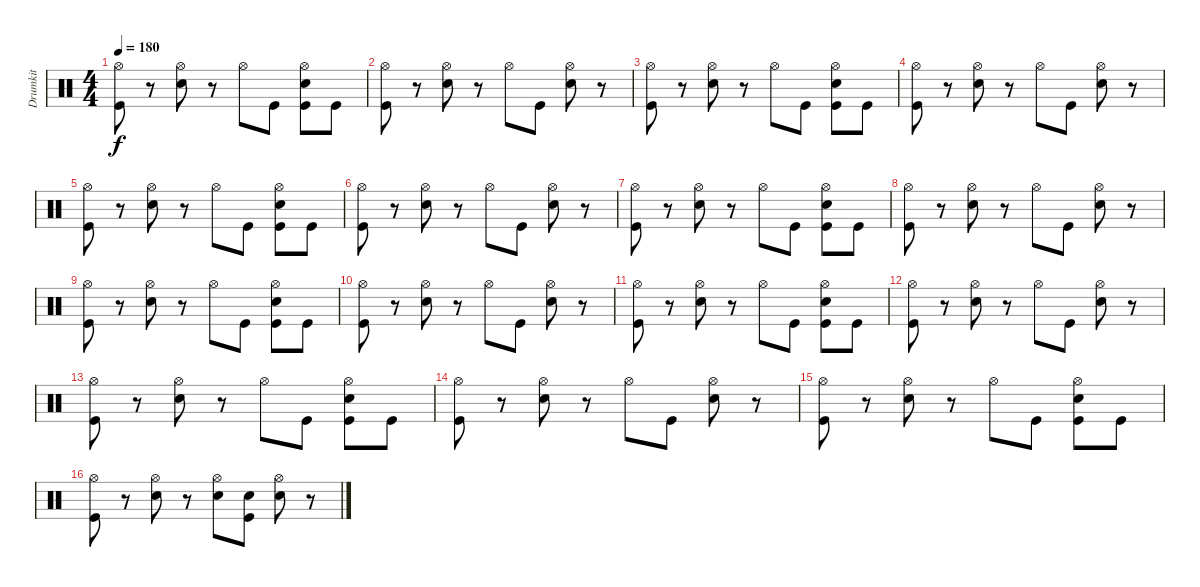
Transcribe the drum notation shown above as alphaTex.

\track ("Drumkit" "Drumkit") {instrument percussion}
\staff {score}
\articulation defaults
\ts (4 4)
\tempo 180
\clef neutral
\ks c
("Hi-Hat (open)" "Kick (hit)").8{dy f} r.8 ("Hi-Hat (open)" "Snare (hit) 2").8 r.8 "Hi-Hat (open)".8 "Kick (hit)".8 ("Hi-Hat (open)" "Snare (hit) 2" "Kick (hit)").8 "Kick (hit)".8 |
("Hi-Hat (open)" "Kick (hit)").8 r.8 ("Hi-Hat (open)" "Snare (hit) 2").8 r.8 "Hi-Hat (open)".8 "Kick (hit)".8 ("Hi-Hat (open)" "Snare (hit) 2").8 r.8 |
("Hi-Hat (open)" "Kick (hit)").8 r.8 ("Hi-Hat (open)" "Snare (hit) 2").8 r.8 "Hi-Hat (open)".8 "Kick (hit)".8 ("Hi-Hat (open)" "Snare (hit) 2" "Kick (hit)").8 "Kick (hit)".8 |
("Hi-Hat (open)" "Kick (hit)").8 r.8 ("Hi-Hat (open)" "Snare (hit) 2").8 r.8 "Hi-Hat (open)".8 "Kick (hit)".8 ("Hi-Hat (open)" "Snare (hit) 2").8 r.8 |
("Hi-Hat (open)" "Kick (hit)").8 r.8 ("Hi-Hat (open)" "Snare (hit) 2").8 r.8 "Hi-Hat (open)".8 "Kick (hit)".8 ("Hi-Hat (open)" "Snare (hit) 2" "Kick (hit)").8 "Kick (hit)".8 |
("Hi-Hat (open)" "Kick (hit)").8 r.8 ("Hi-Hat (open)" "Snare (hit) 2").8 r.8 "Hi-Hat (open)".8 "Kick (hit)".8 ("Hi-Hat (open)" "Snare (hit) 2").8 r.8 |
("Hi-Hat (open)" "Kick (hit)").8 r.8 ("Hi-Hat (open)" "Snare (hit) 2").8 r.8 "Hi-Hat (open)".8 "Kick (hit)".8 ("Hi-Hat (open)" "Snare (hit) 2" "Kick (hit)").8 "Kick (hit)".8 |
("Hi-Hat (open)" "Kick (hit)").8 r.8 ("Hi-Hat (open)" "Snare (hit) 2").8 r.8 "Hi-Hat (open)".8 "Kick (hit)".8 ("Hi-Hat (open)" "Snare (hit) 2").8 r.8 |
("Hi-Hat (open)" "Kick (hit)").8 r.8 ("Hi-Hat (open)" "Snare (hit) 2").8 r.8 "Hi-Hat (open)".8 "Kick (hit)".8 ("Hi-Hat (open)" "Snare (hit) 2" "Kick (hit)").8 "Kick (hit)".8 |
("Hi-Hat (open)" "Kick (hit)").8 r.8 ("Hi-Hat (open)" "Snare (hit) 2").8 r.8 "Hi-Hat (open)".8 "Kick (hit)".8 ("Hi-Hat (open)" "Snare (hit) 2").8 r.8 |
("Hi-Hat (open)" "Kick (hit)").8 r.8 ("Hi-Hat (open)" "Snare (hit) 2").8 r.8 "Hi-Hat (open)".8 "Kick (hit)".8 ("Hi-Hat (open)" "Snare (hit) 2" "Kick (hit)").8 "Kick (hit)".8 |
("Hi-Hat (open)" "Kick (hit)").8 r.8 ("Hi-Hat (open)" "Snare (hit) 2").8 r.8 "Hi-Hat (open)".8 "Kick (hit)".8 ("Hi-Hat (open)" "Snare (hit) 2").8 r.8 |
("Hi-Hat (open)" "Kick (hit)").8 r.8 ("Hi-Hat (open)" "Snare (hit) 2").8 r.8 "Hi-Hat (open)".8 "Kick (hit)".8 ("Hi-Hat (open)" "Snare (hit) 2" "Kick (hit)").8 "Kick (hit)".8 |
("Hi-Hat (open)" "Kick (hit)").8 r.8 ("Hi-Hat (open)" "Snare (hit) 2").8 r.8 "Hi-Hat (open)".8 "Kick (hit)".8 ("Hi-Hat (open)" "Snare (hit) 2").8 r.8 |
("Hi-Hat (open)" "Kick (hit)").8 r.8 ("Hi-Hat (open)" "Snare (hit) 2").8 r.8 "Hi-Hat (open)".8 "Kick (hit)".8 ("Hi-Hat (open)" "Snare (hit) 2" "Kick (hit)").8 "Kick (hit)".8 |
("Hi-Hat (open)" "Kick (hit)").8 r.8 ("Hi-Hat (open)" "Snare (hit) 2").8 r.8 ("Hi-Hat (open)" "Snare (hit) 2").8 ("Snare (hit) 2" "Kick (hit)").8 ("Hi-Hat (open)" "Snare (hit) 2").8 r.8
